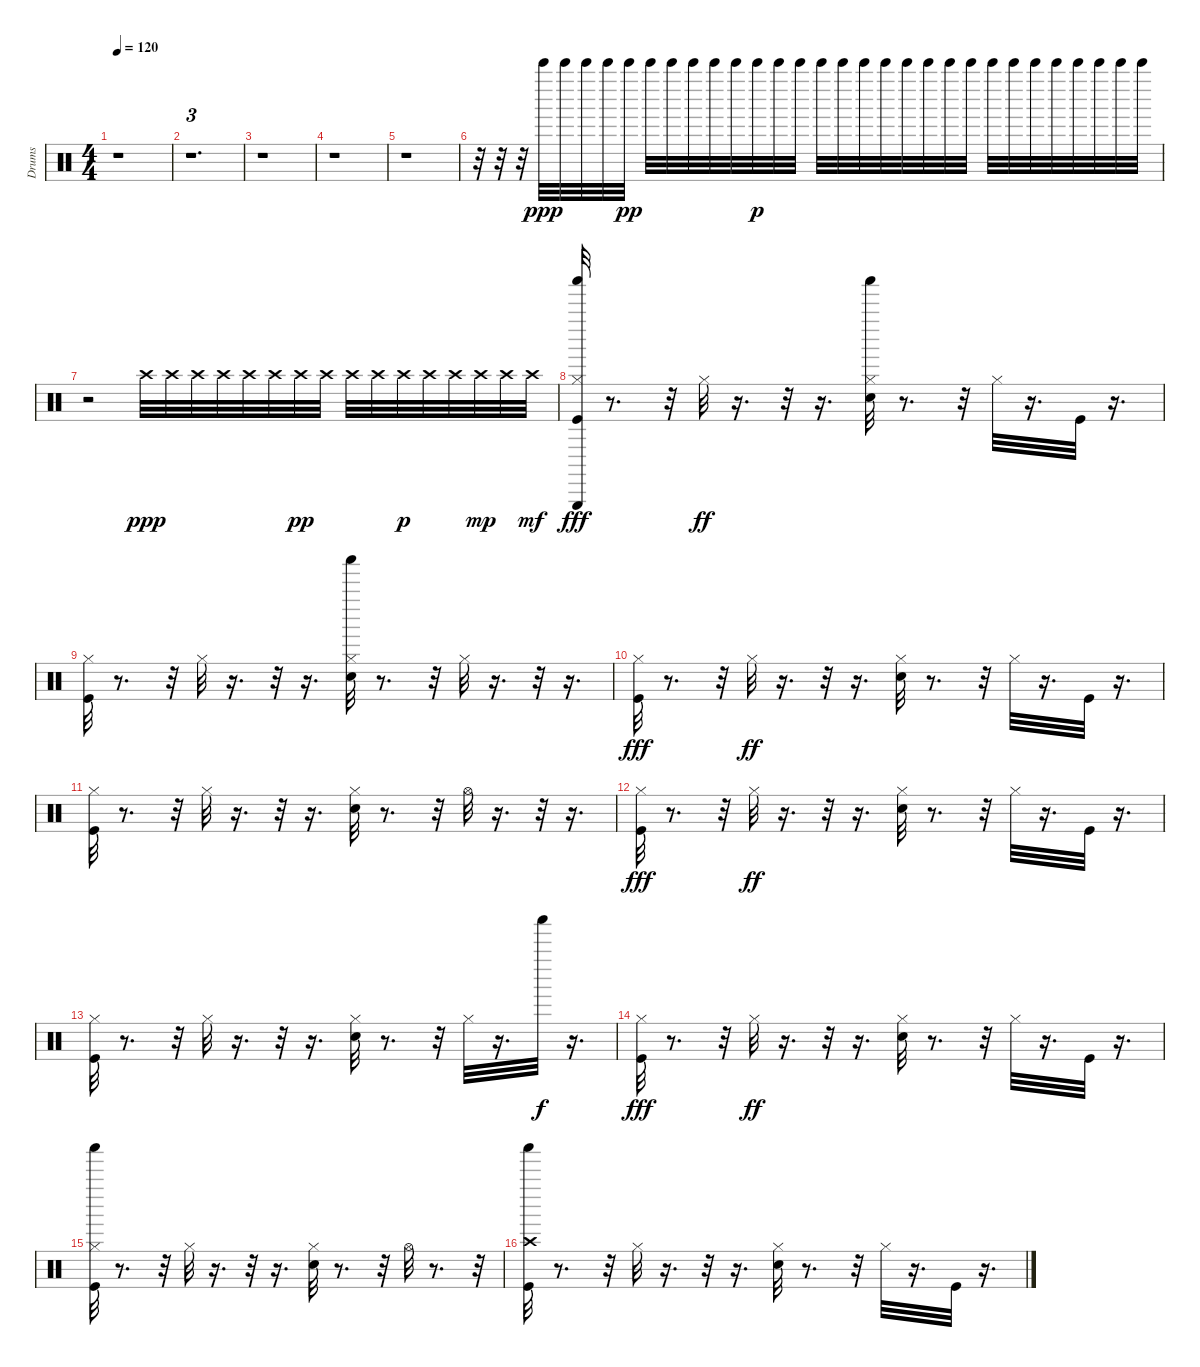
\track ("Drums" "Drums") {instrument percussion}
\staff {score}
\articulation defaults
\ts (4 4)
\tempo 120
\clef neutral
\ks c
r.1{dy ppp} |
r.1{d tu (3 2)} |
r.1 |
r.1 |
r.1 |
r.32 r.32 r.32 "Bell Tree (hit)".32 "Bell Tree (hit)".32 "Bell Tree (hit)".32 "Bell Tree (hit)".32 "Bell Tree (hit)".32{dy pp} "Bell Tree (hit)".32 "Bell Tree (hit)".32 "Bell Tree (hit)".32 "Bell Tree (hit)".32 "Bell Tree (hit)".32 "Bell Tree (hit)".32{dy p} "Bell Tree (hit)".32 "Bell Tree (hit)".32 "Bell Tree (hit)".32 "Bell Tree (hit)".32 "Bell Tree (hit)".32 "Bell Tree (hit)".32 "Bell Tree (hit)".32 "Bell Tree (hit)".32 "Bell Tree (hit)".32 "Bell Tree (hit)".32 "Bell Tree (hit)".32 "Bell Tree (hit)".32 "Bell Tree (hit)".32 "Bell Tree (hit)".32 "Bell Tree (hit)".32 "Bell Tree (hit)".32 "Bell Tree (hit)".32 "Bell Tree (hit)".32 |
r.2 "Crash high (hit)".32{dy ppp} "Crash high (hit)".32 "Crash high (hit)".32 "Crash high (hit)".32 "Crash high (hit)".32 "Crash high (hit)".32 "Crash high (hit)".32{dy pp} "Crash high (hit)".32 "Crash high (hit)".32 "Crash high (hit)".32 "Crash high (hit)".32{dy p} "Crash high (hit)".32 "Crash high (hit)".32 "Crash high (hit)".32{dy mp} "Crash high (hit)".32 "Crash high (hit)".32{dy mf} |
("Hi-Hat (closed)" "Kick (hit)" "Shaker (hit)" "Triangle (hit)").32{dy fff} r.8{d} r.32 "Hi-Hat (closed)".32{dy ff} r.16{d} r.32 r.16{d} ("Shaker (hit)" "Electric Snare (hit)" "Hi-Hat (closed)").32 r.8{d} r.32 "Hi-Hat (closed)".32 r.16{d} "Kick (hit)".32 r.16{d} |
("Kick (hit)" "Hi-Hat (closed)").32 r.8{d} r.32 "Hi-Hat (closed)".32 r.16{d} r.32 r.16{d} ("Shaker (hit)" "Electric Snare (hit)" "Hi-Hat (closed)").32 r.8{d} r.32 "Hi-Hat (closed)".32 r.16{d} r.32 r.16{d} |
("Hi-Hat (closed)" "Kick (hit)").32{dy fff} r.8{d} r.32 "Hi-Hat (closed)".32{dy ff} r.16{d} r.32 r.16{d} ("Electric Snare (hit)" "Hi-Hat (closed)").32 r.8{d} r.32 "Hi-Hat (closed)".32 r.16{d} "Kick (hit)".32 r.16{d} |
("Kick (hit)" "Hi-Hat (closed)").32 r.8{d} r.32 "Hi-Hat (closed)".32 r.16{d} r.32 r.16{d} ("Electric Snare (hit)" "Hi-Hat (closed)").32 r.8{d} r.32 "Hi-Hat (open)".32 r.16{d} r.32 r.16{d} |
("Hi-Hat (closed)" "Kick (hit)").32{dy fff} r.8{d} r.32 "Hi-Hat (closed)".32{dy ff} r.16{d} r.32 r.16{d} ("Electric Snare (hit)" "Hi-Hat (closed)").32 r.8{d} r.32 "Hi-Hat (closed)".32 r.16{d} "Kick (hit)".32 r.16{d} |
("Kick (hit)" "Hi-Hat (closed)").32 r.8{d} r.32 "Hi-Hat (closed)".32 r.16{d} r.32 r.16{d} ("Electric Snare (hit)" "Hi-Hat (closed)").32 r.8{d} r.32 "Hi-Hat (closed)".32 r.16{d} "Shaker (hit)".32{dy f} r.16{d} |
("Hi-Hat (closed)" "Kick (hit)").32{dy fff} r.8{d} r.32 "Hi-Hat (closed)".32{dy ff} r.16{d} r.32 r.16{d} ("Electric Snare (hit)" "Hi-Hat (closed)").32 r.8{d} r.32 "Hi-Hat (closed)".32 r.16{d} "Kick (hit)".32 r.16{d} |
("Shaker (hit)" "Kick (hit)" "Hi-Hat (closed)").32 r.8{d} r.32 "Hi-Hat (closed)".32 r.16{d} r.32 r.16{d} ("Electric Snare (hit)" "Hi-Hat (closed)").32 r.8{d} r.32 "Hi-Hat (open)".32 r.8{d} r.32 |
("Kick (hit)" "Crash high (hit)" "Shaker (hit)").32 r.8{d} r.32 "Hi-Hat (closed)".32 r.16{d} r.32 r.16{d} ("Electric Snare (hit)" "Hi-Hat (closed)").32 r.8{d} r.32 "Hi-Hat (closed)".32 r.16{d} "Kick (hit)".32 r.16{d}
